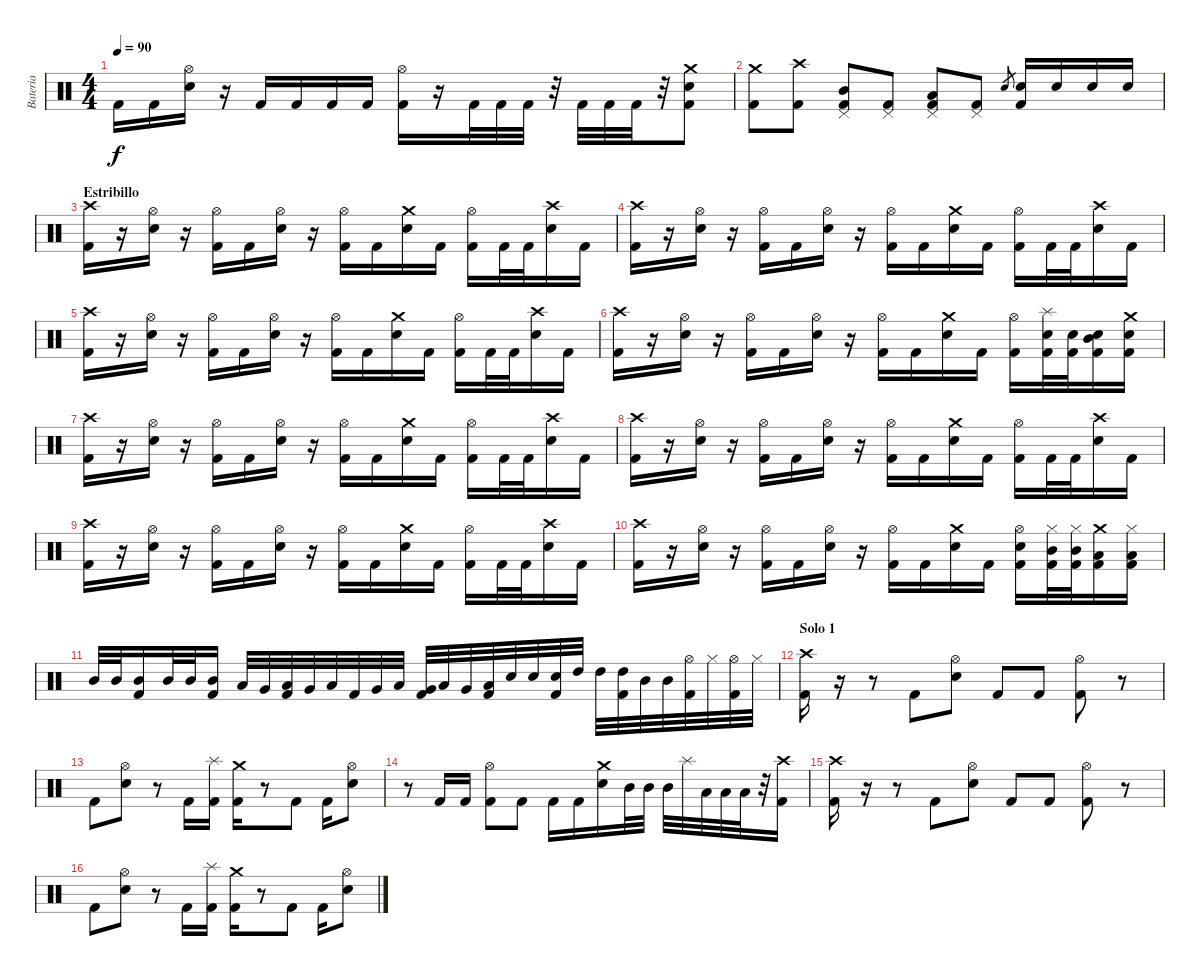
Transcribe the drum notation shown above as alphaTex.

\track ("Bateria" "Bateria") {instrument percussion}
\staff {score}
\articulation defaults
\ts (4 4)
\tempo 90
\clef neutral
\ks c "Kick (hit) 2".16{dy f} "Kick (hit) 2".16
("Hi-Hat (open)" "Snare (hit) 2").16 r.16 "Kick (hit) 2".16 "Kick (hit) 2".16 "Kick (hit) 2".16 "Kick (hit) 2".16 ("Hi-Hat (open)" "Kick (hit) 2").16 r.16 "Kick (hit) 2".32 "Kick (hit) 2".32 "Kick (hit) 2".32 r.32 "Kick (hit) 2".32 "Kick (hit) 2".32 "Kick (hit) 2".32 r.32 ("Crash medium (hit)" "Snare (hit) 2" "Kick (hit) 2").8 |
("Crash medium (hit)" "Kick (hit) 2").8 ("Crash high (hit)" "Kick (hit) 2").8 ("Pedal Hi-Hat (hit)" "Mid Tom (hit)" "Kick (hit) 2").8 ("Pedal Hi-Hat (hit)" "Kick (hit) 2").8 ("Pedal Hi-Hat (hit)" "Low Tom (hit)" "Kick (hit) 2").8 ("Pedal Hi-Hat (hit)" "Kick (hit) 2").8 "Snare (hit) 2".8{gr} ("Snare (hit) 2" "Kick (hit) 2").16 "Snare (hit) 2".16 "Snare (hit) 2".16 "Snare (hit) 2".16 |
\section ("" "Estribillo")
("Crash high (hit)" "Kick (hit) 2").16 r.16 ("Hi-Hat (open)" "Snare (hit) 2").16 r.16 ("Hi-Hat (open)" "Kick (hit) 2").16 "Kick (hit) 2".16 ("Hi-Hat (open)" "Snare (hit) 2").16 r.16 ("Hi-Hat (open)" "Kick (hit) 2").16 "Kick (hit) 2".16 ("Crash medium (hit)" "Snare (hit) 2").16 "Kick (hit) 2".16 ("Hi-Hat (open)" "Kick (hit) 2").16 "Kick (hit) 2".32 "Kick (hit) 2".32 ("Crash high (hit)" "Snare (hit) 2").16 "Kick (hit) 2".16 |
("Crash high (hit)" "Kick (hit) 2").16 r.16 ("Hi-Hat (open)" "Snare (hit) 2").16 r.16 ("Hi-Hat (open)" "Kick (hit) 2").16 "Kick (hit) 2".16 ("Hi-Hat (open)" "Snare (hit) 2").16 r.16 ("Hi-Hat (open)" "Kick (hit) 2").16 "Kick (hit) 2".16 ("Crash medium (hit)" "Snare (hit) 2").16 "Kick (hit) 2".16 ("Hi-Hat (open)" "Kick (hit) 2").16 "Kick (hit) 2".32 "Kick (hit) 2".32 ("Crash high (hit)" "Snare (hit) 2").16 "Kick (hit) 2".16 |
("Crash high (hit)" "Kick (hit) 2").16 r.16 ("Hi-Hat (open)" "Snare (hit) 2").16 r.16 ("Hi-Hat (open)" "Kick (hit) 2").16 "Kick (hit) 2".16 ("Hi-Hat (open)" "Snare (hit) 2").16 r.16 ("Hi-Hat (open)" "Kick (hit) 2").16 "Kick (hit) 2".16 ("Crash medium (hit)" "Snare (hit) 2").16 "Kick (hit) 2".16 ("Hi-Hat (open)" "Kick (hit) 2").16 "Kick (hit) 2".32 "Kick (hit) 2".32 ("Crash high (hit)" "Snare (hit) 2").16 "Kick (hit) 2".16 |
("Crash high (hit)" "Kick (hit) 2").16 r.16 ("Hi-Hat (open)" "Snare (hit) 2").16 r.16 ("Hi-Hat (open)" "Kick (hit) 2").16 "Kick (hit) 2".16 ("Hi-Hat (open)" "Snare (hit) 2").16 r.16 ("Hi-Hat (open)" "Kick (hit) 2").16 "Kick (hit) 2".16 ("Crash medium (hit)" "Snare (hit) 2").16 "Kick (hit) 2".16 ("Hi-Hat (open)" "Kick (hit) 2").16 ("Splash (hit)" "Snare (hit) 2" "Kick (hit) 2").32 ("Snare (hit) 2" "Kick (hit) 2").32 ("Mid Tom (hit)" "Snare (hit) 2" "Kick (hit) 2").16 ("Crash medium (hit)" "Snare (hit) 2" "Kick (hit) 2").16 |
("Crash high (hit)" "Kick (hit) 2").16 r.16 ("Hi-Hat (open)" "Snare (hit) 2").16 r.16 ("Hi-Hat (open)" "Kick (hit) 2").16 "Kick (hit) 2".16 ("Hi-Hat (open)" "Snare (hit) 2").16 r.16 ("Hi-Hat (open)" "Kick (hit) 2").16 "Kick (hit) 2".16 ("Crash medium (hit)" "Snare (hit) 2").16 "Kick (hit) 2".16 ("Hi-Hat (open)" "Kick (hit) 2").16 "Kick (hit) 2".32 "Kick (hit) 2".32 ("Crash high (hit)" "Snare (hit) 2").16 "Kick (hit) 2".16 |
("Crash high (hit)" "Kick (hit) 2").16 r.16 ("Hi-Hat (open)" "Snare (hit) 2").16 r.16 ("Hi-Hat (open)" "Kick (hit) 2").16 "Kick (hit) 2".16 ("Hi-Hat (open)" "Snare (hit) 2").16 r.16 ("Hi-Hat (open)" "Kick (hit) 2").16 "Kick (hit) 2".16 ("Crash medium (hit)" "Snare (hit) 2").16 "Kick (hit) 2".16 ("Hi-Hat (open)" "Kick (hit) 2").16 "Kick (hit) 2".32 "Kick (hit) 2".32 ("Crash high (hit)" "Snare (hit) 2").16 "Kick (hit) 2".16 |
("Crash high (hit)" "Kick (hit) 2").16 r.16 ("Hi-Hat (open)" "Snare (hit) 2").16 r.16 ("Hi-Hat (open)" "Kick (hit) 2").16 "Kick (hit) 2".16 ("Hi-Hat (open)" "Snare (hit) 2").16 r.16 ("Hi-Hat (open)" "Kick (hit) 2").16 "Kick (hit) 2".16 ("Crash medium (hit)" "Snare (hit) 2").16 "Kick (hit) 2".16 ("Hi-Hat (open)" "Kick (hit) 2").16 "Kick (hit) 2".32 "Kick (hit) 2".32 ("Crash high (hit)" "Snare (hit) 2").16 "Kick (hit) 2".16 |
("Crash high (hit)" "Kick (hit) 2").16 r.16 ("Hi-Hat (open)" "Snare (hit) 2").16 r.16 ("Hi-Hat (open)" "Kick (hit) 2").16 "Kick (hit) 2".16 ("Hi-Hat (open)" "Snare (hit) 2").16 r.16 ("Hi-Hat (open)" "Kick (hit) 2").16 "Kick (hit) 2".16 ("Crash medium (hit)" "Snare (hit) 2").16 "Kick (hit) 2".16 ("Hi-Hat (open)" "Snare (hit) 2" "Kick (hit) 2").16 ("Hi-Hat (closed)" "Mid Tom (hit)" "Kick (hit) 2").32 ("Hi-Hat (closed)" "Mid Tom (hit)" "Kick (hit) 2").32 ("Crash medium (hit)" "Low Tom (hit)" "Kick (hit) 2").16 ("Hi-Hat (closed)" "Low Tom (hit)" "Kick (hit) 2").16 |
"Mid Tom (hit)".32 "Mid Tom (hit)".32 ("Mid Tom (hit)" "Kick (hit) 2").16 "Mid Tom (hit)".32 "Mid Tom (hit)".32 ("Mid Tom (hit)" "Kick (hit) 2").16 "Low Tom (hit)".32 "Very Low Tom (hit)".32 ("Low Tom (hit)" "Kick (hit) 2").32 "Very Low Tom (hit)".32 "Low Tom (hit)".32 "Kick (hit) 2".32 "Very Low Tom (hit)".32 "Low Floor Tom (hit)".32 ("Very Low Tom (hit)" "Kick (hit) 2").32 "Low Floor Tom (hit)".32 "Very Low Tom (hit)".32 ("Low Floor Tom (hit)" "Kick (hit) 2").32 "Snare (hit) 2".32 "Snare (hit) 2".32 ("Snare (hit) 2" "Kick (hit) 2").32 "High Tom (hit)".32 "High Tom (hit)".32 ("High Tom (hit)" "Kick (hit) 2").32 "Mid Tom (hit)".32 "Mid Tom (hit)".32 ("Hi-Hat (open)" "Kick (hit) 2").32 "Hi-Hat (closed)".32 ("Hi-Hat (open)" "Kick (hit) 2").32 "Hi-Hat (closed)".32 |
\section ("" "Solo 1")
("Crash high (hit)" "Kick (hit) 2").16 r.16 r.8 "Kick (hit) 2".8 ("Hi-Hat (open)" "Snare (hit) 2").8 "Kick (hit) 2".8 "Kick (hit) 2".8 ("Hi-Hat (open)" "Kick (hit) 2").8 r.8 |
"Kick (hit) 2".8 ("Hi-Hat (open)" "Snare (hit) 2").8 r.8 "Kick (hit) 2".16 ("Splash (hit)" "Kick (hit) 2").16 ("Crash medium (hit)" "Kick (hit) 2").16 r.8 "Kick (hit) 2".8 "Kick (hit) 2".16 ("Hi-Hat (open)" "Snare (hit) 2").8 |
r.8 "Kick (hit) 2".16 "Kick (hit) 2".16 ("Hi-Hat (open)" "Kick (hit) 2").8 "Kick (hit) 2".8 "Kick (hit) 2".16 "Kick (hit) 2".16 ("Crash medium (hit)" "Snare (hit) 2").16 "Mid Tom (hit)".32 "Mid Tom (hit)".32 "Mid Tom (hit)".32 "Splash (hit)".32 "Low Tom (hit)".32 "Low Tom (hit)".32 "Low Tom (hit)".32 r.32 ("Crash high (hit)" "Kick (hit) 2").16 |
("Crash high (hit)" "Kick (hit) 2").16 r.16 r.8 "Kick (hit) 2".8 ("Hi-Hat (open)" "Snare (hit) 2").8 "Kick (hit) 2".8 "Kick (hit) 2".8 ("Hi-Hat (open)" "Kick (hit) 2").8 r.8 |
"Kick (hit) 2".8 ("Hi-Hat (open)" "Snare (hit) 2").8 r.8 "Kick (hit) 2".16 ("Splash (hit)" "Kick (hit) 2").16 ("Crash medium (hit)" "Kick (hit) 2").16 r.8 "Kick (hit) 2".8 "Kick (hit) 2".16 ("Hi-Hat (open)" "Snare (hit) 2").8
